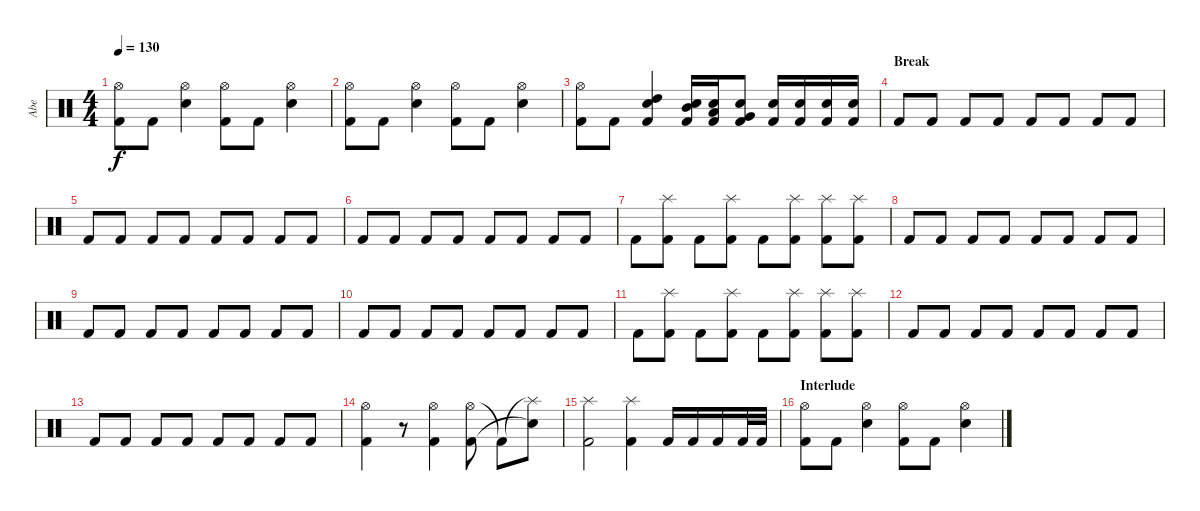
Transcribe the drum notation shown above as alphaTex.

\track ("Abe" "Abe") {instrument percussion}
\staff {score}
\articulation defaults
\ts (4 4)
\tempo 130
\clef neutral
\ks c
("Hi-Hat (open)" "Kick (hit) 2").8{dy f} "Kick (hit) 2".8 ("Hi-Hat (open)" "Snare (hit) 2").4 ("Hi-Hat (open)" "Kick (hit) 2").8 "Kick (hit) 2".8 ("Hi-Hat (open)" "Snare (hit) 2").4 |
("Hi-Hat (open)" "Kick (hit) 2").8 "Kick (hit) 2".8 ("Hi-Hat (open)" "Snare (hit) 2").4 ("Hi-Hat (open)" "Kick (hit) 2").8 "Kick (hit) 2".8 ("Hi-Hat (open)" "Snare (hit) 2").4 |
("Hi-Hat (open)" "Kick (hit) 2").8 "Kick (hit) 2".8 ("Kick (hit) 2" "Snare (hit) 2" "High Tom (hit)").4 ("Kick (hit) 2" "Snare (hit) 2" "Mid Tom (hit)").16 ("Kick (hit) 2" "Snare (hit) 2" "Low Tom (hit)").16 ("Kick (hit) 2" "Snare (hit) 2" "Very Low Tom (hit)").8 ("Kick (hit) 2" "Snare (hit) 2").16 ("Kick (hit) 2" "Snare (hit) 2").16 ("Kick (hit) 2" "Snare (hit) 2").16 ("Kick (hit) 2" "Snare (hit) 2").16 |
\section ("" "Break")
"Kick (hit) 2".8 "Kick (hit) 2".8 "Kick (hit) 2".8 "Kick (hit) 2".8 "Kick (hit) 2".8 "Kick (hit) 2".8 "Kick (hit) 2".8 "Kick (hit) 2".8 |
"Kick (hit) 2".8 "Kick (hit) 2".8 "Kick (hit) 2".8 "Kick (hit) 2".8 "Kick (hit) 2".8 "Kick (hit) 2".8 "Kick (hit) 2".8 "Kick (hit) 2".8 |
"Kick (hit) 2".8 "Kick (hit) 2".8 "Kick (hit) 2".8 "Kick (hit) 2".8 "Kick (hit) 2".8 "Kick (hit) 2".8 "Kick (hit) 2".8 "Kick (hit) 2".8 |
"Kick (hit) 2".8 ("Splash (hit)" "Kick (hit) 2").8 "Kick (hit) 2".8 ("Splash (hit)" "Kick (hit) 2").8 "Kick (hit) 2".8 ("Splash (hit)" "Kick (hit) 2").8 ("Splash (hit)" "Kick (hit) 2").8 ("Splash (hit)" "Kick (hit) 2").8 |
"Kick (hit) 2".8 "Kick (hit) 2".8 "Kick (hit) 2".8 "Kick (hit) 2".8 "Kick (hit) 2".8 "Kick (hit) 2".8 "Kick (hit) 2".8 "Kick (hit) 2".8 |
"Kick (hit) 2".8 "Kick (hit) 2".8 "Kick (hit) 2".8 "Kick (hit) 2".8 "Kick (hit) 2".8 "Kick (hit) 2".8 "Kick (hit) 2".8 "Kick (hit) 2".8 |
"Kick (hit) 2".8 "Kick (hit) 2".8 "Kick (hit) 2".8 "Kick (hit) 2".8 "Kick (hit) 2".8 "Kick (hit) 2".8 "Kick (hit) 2".8 "Kick (hit) 2".8 |
"Kick (hit) 2".8 ("Splash (hit)" "Kick (hit) 2").8 "Kick (hit) 2".8 ("Splash (hit)" "Kick (hit) 2").8 "Kick (hit) 2".8 ("Splash (hit)" "Kick (hit) 2").8 ("Splash (hit)" "Kick (hit) 2").8 ("Splash (hit)" "Kick (hit) 2").8 |
"Kick (hit) 2".8 "Kick (hit) 2".8 "Kick (hit) 2".8 "Kick (hit) 2".8 "Kick (hit) 2".8 "Kick (hit) 2".8 "Kick (hit) 2".8 "Kick (hit) 2".8 |
"Kick (hit) 2".8 "Kick (hit) 2".8 "Kick (hit) 2".8 "Kick (hit) 2".8 "Kick (hit) 2".8 "Kick (hit) 2".8 "Kick (hit) 2".8 "Kick (hit) 2".8 |
("Hi-Hat (open)" "Kick (hit) 2").4 r.8 ("Hi-Hat (open)" "Kick (hit) 2").4 ("Hi-Hat (open)" "Kick (hit) 2").8 "Kick (hit) 2"{t}.8 ("Splash (hit)"{t} "Snare (hit) 2"{t}).8 |
("Splash (hit)" "Kick (hit) 2").2 ("Splash (hit)" "Kick (hit) 2").4 "Kick (hit) 2".16 "Kick (hit) 2".16 "Kick (hit) 2".16 "Kick (hit) 2".32 "Kick (hit) 2".32 |
\section ("" "Interlude")
("Hi-Hat (open)" "Kick (hit) 2").8 "Kick (hit) 2".8 ("Hi-Hat (open)" "Snare (hit) 2").4 ("Hi-Hat (open)" "Kick (hit) 2").8 "Kick (hit) 2".8 ("Hi-Hat (open)" "Snare (hit) 2").4
